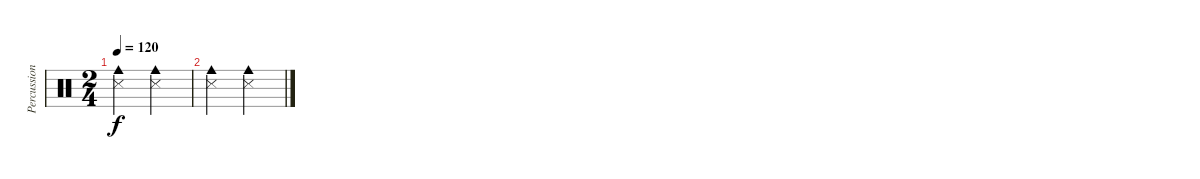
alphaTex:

\track ("Percussion" "Percussion") {instrument percussion}
\staff {score}
\articulation defaults
\ts (2 4)
\tempo 120
\clef neutral
\ks aminor
("Snare (side stick) 3" "Cowbell medium (hit)").4{dy f} ("Snare (side stick) 3" "Cowbell medium (hit)").4 |
("Snare (side stick) 3" "Cowbell medium (hit)").4 ("Snare (side stick) 3" "Cowbell medium (hit)").4
